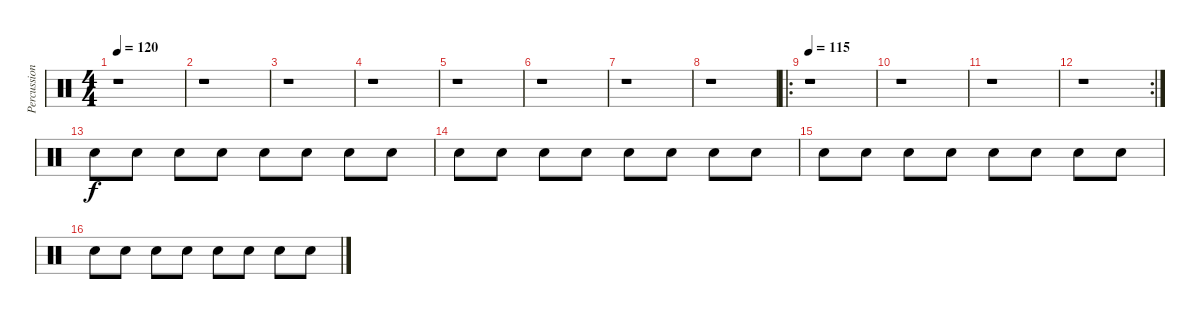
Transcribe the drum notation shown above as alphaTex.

\track ("Percussion" "Percussion") {instrument percussion}
\staff {score}
\articulation defaults
\ts (4 4)
\tempo 120
\tempo 100
\tempo 120
\clef neutral
\ks c
r.1{dy f} |
r.1 |
r.1 |
r.1 |
r.1 |
r.1 |
r.1 |
r.1 |
\ro
\tempo 115
r.1 |
r.1 |
r.1 |
\rc 2
r.1 |
"Snare (hit) 2".8 "Snare (hit) 2".8 "Snare (hit) 2".8 "Snare (hit) 2".8 "Snare (hit) 2".8 "Snare (hit) 2".8 "Snare (hit) 2".8 "Snare (hit) 2".8 |
"Snare (hit) 2".8 "Snare (hit) 2".8 "Snare (hit) 2".8 "Snare (hit) 2".8 "Snare (hit) 2".8 "Snare (hit) 2".8 "Snare (hit) 2".8 "Snare (hit) 2".8 |
"Snare (hit) 2".8 "Snare (hit) 2".8 "Snare (hit) 2".8 "Snare (hit) 2".8 "Snare (hit) 2".8 "Snare (hit) 2".8 "Snare (hit) 2".8 "Snare (hit) 2".8 |
"Snare (hit) 2".8 "Snare (hit) 2".8 "Snare (hit) 2".8 "Snare (hit) 2".8 "Snare (hit) 2".8 "Snare (hit) 2".8 "Snare (hit) 2".8 "Snare (hit) 2".8
